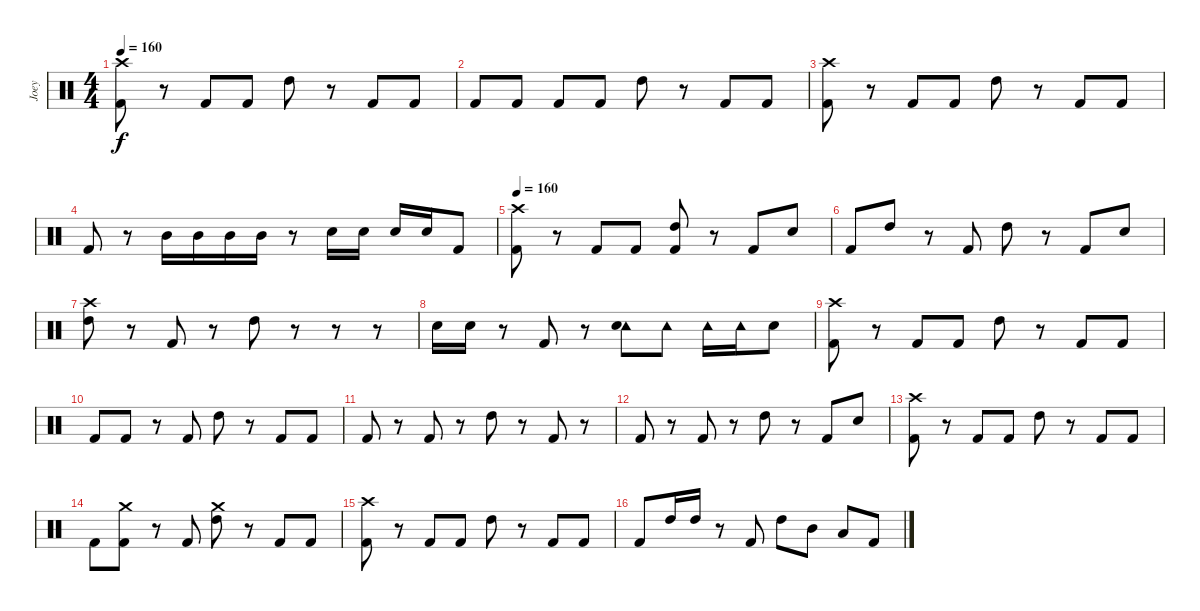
\track ("Joey" "Joey") {instrument percussion}
\staff {score}
\articulation defaults
\ts (4 4)
\tempo 160
\clef neutral
\ks c
("Crash high (hit)" "Kick (hit) 2").8{dy f} r.8 "Kick (hit) 2".8 "Kick (hit) 2".8 "High Tom (hit)".8 r.8 "Kick (hit) 2".8 "Kick (hit) 2".8 |
"Kick (hit) 2".8 "Kick (hit) 2".8 "Kick (hit) 2".8 "Kick (hit) 2".8 "High Tom (hit)".8 r.8 "Kick (hit) 2".8 "Kick (hit) 2".8 |
("Crash high (hit)" "Kick (hit) 2").8 r.8 "Kick (hit) 2".8 "Kick (hit) 2".8 "High Tom (hit)".8 r.8 "Kick (hit) 2".8 "Kick (hit) 2".8 |
"Kick (hit) 2".8 r.8 "Mid Tom (hit)".16 "Mid Tom (hit)".16 "Mid Tom (hit)".16 "Mid Tom (hit)".16 r.8 "Electric Snare (hit)".16 "Electric Snare (hit)".16 "Electric Snare (hit)".16 "Electric Snare (hit)".16 "Kick (hit) 2".8 |
\tempo 160
("Crash high (hit)" "Kick (hit) 2").8 r.8 "Kick (hit) 2".8 "Kick (hit) 2".8 ("High Tom (hit)" "Kick (hit) 2").8 r.8 "Kick (hit) 2".8 "Snare (hit)".8 |
"Kick (hit) 2".8 "High Tom (hit)".8 r.8 "Kick (hit) 2".8 "High Tom (hit)".8 r.8 "Kick (hit) 2".8 "Snare (hit)".8 |
("Crash high (hit)" "High Tom (hit)").8 r.8 "Kick (hit) 2".8 r.8 "High Tom (hit)".8 r.8 r.8 r.8 |
"Electric Snare (hit)".16 "Electric Snare (hit)".16 r.8 "Kick (hit) 2".8 r.8 ("Tambourine (hit)" "Electric Snare (hit)").8 "Tambourine (hit)".8 "Tambourine (hit)".16 "Tambourine (hit)".16 "Electric Snare (hit)".8 |
("Crash high (hit)" "Kick (hit) 2").8 r.8 "Kick (hit) 2".8 "Kick (hit) 2".8 "High Tom (hit)".8 r.8 "Kick (hit) 2".8 "Kick (hit) 2".8 |
"Kick (hit) 2".8 "Kick (hit) 2".8 r.8 "Kick (hit) 2".8 "High Tom (hit)".8 r.8 "Kick (hit) 2".8 "Kick (hit) 2".8 |
"Kick (hit) 2".8 r.8 "Kick (hit) 2".8 r.8 "High Tom (hit)".8 r.8 "Kick (hit) 2".8 r.8 |
"Kick (hit) 2".8 r.8 "Kick (hit) 2".8 r.8 "High Tom (hit)".8 r.8 "Kick (hit) 2".8 "Electric Snare (hit)".8 |
("Crash high (hit)" "Kick (hit) 2").8 r.8 "Kick (hit) 2".8 "Kick (hit) 2".8 "High Tom (hit)".8 r.8 "Kick (hit) 2".8 "Kick (hit) 2".8 |
"Kick (hit) 2".8 ("Crash medium (hit)" "Kick (hit) 2").8 r.8 "Kick (hit) 2".8 ("Crash medium (hit)" "High Tom (hit)").8 r.8 "Kick (hit) 2".8 "Kick (hit) 2".8 |
("Crash high (hit)" "Kick (hit) 2").8 r.8 "Kick (hit) 2".8 "Kick (hit) 2".8 "High Tom (hit)".8 r.8 "Kick (hit) 2".8 "Kick (hit) 2".8 |
"Kick (hit) 2".8 "High Tom (hit)".16 "High Tom (hit)".16 r.8 "Kick (hit) 2".8 "High Tom (hit)".8 "Mid Tom (hit)".8 "Low Tom (hit)".8 "Kick (hit) 2".8
